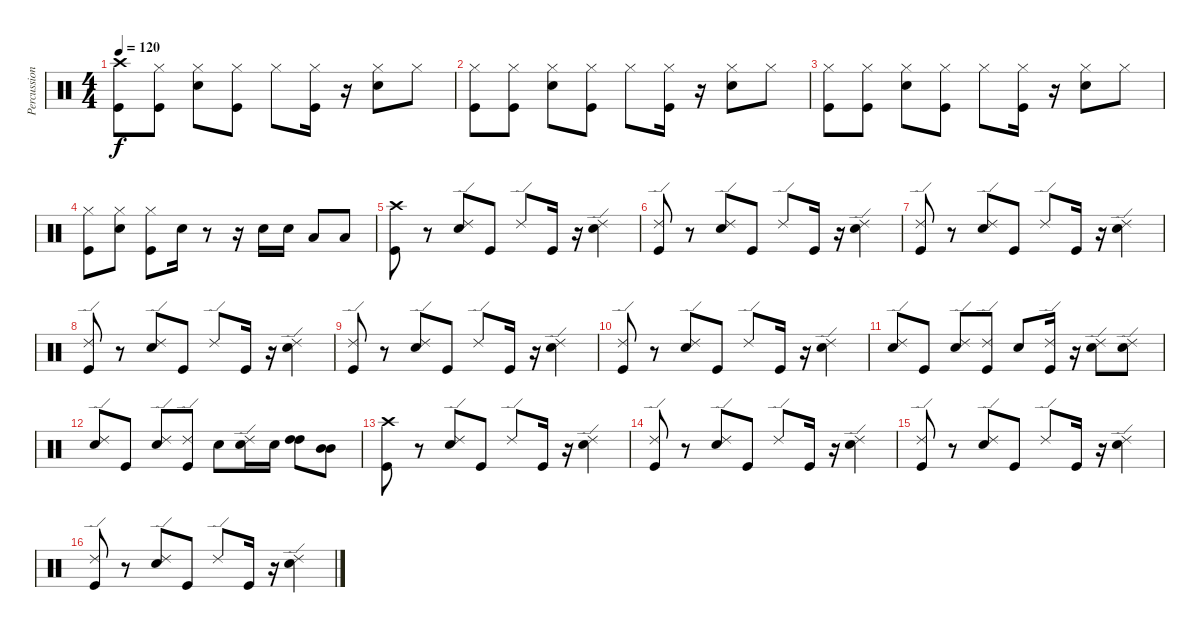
\track ("Percussion" "Percussion") {instrument percussion}
\staff {score}
\articulation defaults
\ts (4 4)
\tempo 120
\clef neutral
\ks c
("Crash high (hit)" "Kick (hit)").8{dy f} ("Hi-Hat (closed)" "Kick (hit)").8 ("Hi-Hat (closed)" "Electric Snare (hit)").8 ("Hi-Hat (closed)" "Kick (hit)").8 "Hi-Hat (closed)".8 ("Hi-Hat (closed)" "Kick (hit)").16 r.16 ("Hi-Hat (closed)" "Electric Snare (hit)").8 "Hi-Hat (closed)".8 |
("Hi-Hat (closed)" "Kick (hit)").8 ("Hi-Hat (closed)" "Kick (hit)").8 ("Hi-Hat (closed)" "Electric Snare (hit)").8 ("Hi-Hat (closed)" "Kick (hit)").8 "Hi-Hat (closed)".8 ("Hi-Hat (closed)" "Kick (hit)").16 r.16 ("Hi-Hat (closed)" "Electric Snare (hit)").8 "Hi-Hat (closed)".8 |
("Hi-Hat (closed)" "Kick (hit)").8 ("Hi-Hat (closed)" "Kick (hit)").8 ("Hi-Hat (closed)" "Electric Snare (hit)").8 ("Hi-Hat (closed)" "Kick (hit)").8 "Hi-Hat (closed)".8 ("Hi-Hat (closed)" "Kick (hit)").16 r.16 ("Hi-Hat (closed)" "Electric Snare (hit)").8 "Hi-Hat (closed)".8 |
("Hi-Hat (closed)" "Kick (hit)").8 ("Hi-Hat (closed)" "Electric Snare (hit)").8 ("Hi-Hat (closed)" "Kick (hit)").8 "Electric Snare (hit)".16 r.8 r.16 "Electric Snare (hit)".16 "Electric Snare (hit)".16 "Low Tom (hit)".8 "Low Tom (hit)".8 |
("Crash high (hit)" "Kick (hit)").8 r.8 ("Ride (edge) 2" "Electric Snare (hit)").8 "Kick (hit)".8 "Ride (edge) 2".8 "Kick (hit)".16 r.16 ("Ride (edge) 2" "Electric Snare (hit)").4 |
("Ride (edge) 2" "Kick (hit)").8 r.8 ("Ride (edge) 2" "Electric Snare (hit)").8 "Kick (hit)".8 "Ride (edge) 2".8 "Kick (hit)".16 r.16 ("Ride (edge) 2" "Electric Snare (hit)").4 |
("Ride (edge) 2" "Kick (hit)").8 r.8 ("Ride (edge) 2" "Electric Snare (hit)").8 "Kick (hit)".8 "Ride (edge) 2".8 "Kick (hit)".16 r.16 ("Ride (edge) 2" "Electric Snare (hit)").4 |
("Ride (edge) 2" "Kick (hit)").8 r.8 ("Ride (edge) 2" "Electric Snare (hit)").8 "Kick (hit)".8 "Ride (edge) 2".8 "Kick (hit)".16 r.16 ("Ride (edge) 2" "Electric Snare (hit)").4 |
("Ride (edge) 2" "Kick (hit)").8 r.8 ("Ride (edge) 2" "Electric Snare (hit)").8 "Kick (hit)".8 "Ride (edge) 2".8 "Kick (hit)".16 r.16 ("Ride (edge) 2" "Electric Snare (hit)").4 |
("Ride (edge) 2" "Kick (hit)").8 r.8 ("Ride (edge) 2" "Electric Snare (hit)").8 "Kick (hit)".8 "Ride (edge) 2".8 "Kick (hit)".16 r.16 ("Ride (edge) 2" "Electric Snare (hit)").4 |
("Ride (edge) 2" "Electric Snare (hit)").8 "Kick (hit)".8 ("Ride (edge) 2" "Electric Snare (hit)").8 ("Ride (edge) 2" "Kick (hit)").8 "Electric Snare (hit)".8 ("Ride (edge) 2" "Kick (hit)").16 r.16 ("Ride (edge) 2" "Electric Snare (hit)").8 ("Ride (edge) 2" "Electric Snare (hit)").8 |
("Ride (edge) 2" "Electric Snare (hit)").8 "Kick (hit)".8 ("Ride (edge) 2" "Electric Snare (hit)").8 ("Ride (edge) 2" "Kick (hit)").8 "Electric Snare (hit)".8 ("Ride (edge) 2" "Electric Snare (hit)").16 "Electric Snare (hit)".16 ("High Tom (hit)" "High Tom (hit)").8 ("Mid Tom (hit)" "Mid Tom (hit)").8 |
("Crash high (hit)" "Kick (hit)").8 r.8 ("Ride (edge) 2" "Electric Snare (hit)").8 "Kick (hit)".8 "Ride (edge) 2".8 "Kick (hit)".16 r.16 ("Ride (edge) 2" "Electric Snare (hit)").4 |
("Ride (edge) 2" "Kick (hit)").8 r.8 ("Ride (edge) 2" "Electric Snare (hit)").8 "Kick (hit)".8 "Ride (edge) 2".8 "Kick (hit)".16 r.16 ("Ride (edge) 2" "Electric Snare (hit)").4 |
("Ride (edge) 2" "Kick (hit)").8 r.8 ("Ride (edge) 2" "Electric Snare (hit)").8 "Kick (hit)".8 "Ride (edge) 2".8 "Kick (hit)".16 r.16 ("Ride (edge) 2" "Electric Snare (hit)").4 |
("Ride (edge) 2" "Kick (hit)").8 r.8 ("Ride (edge) 2" "Electric Snare (hit)").8 "Kick (hit)".8 "Ride (edge) 2".8 "Kick (hit)".16 r.16 ("Ride (edge) 2" "Electric Snare (hit)").4
